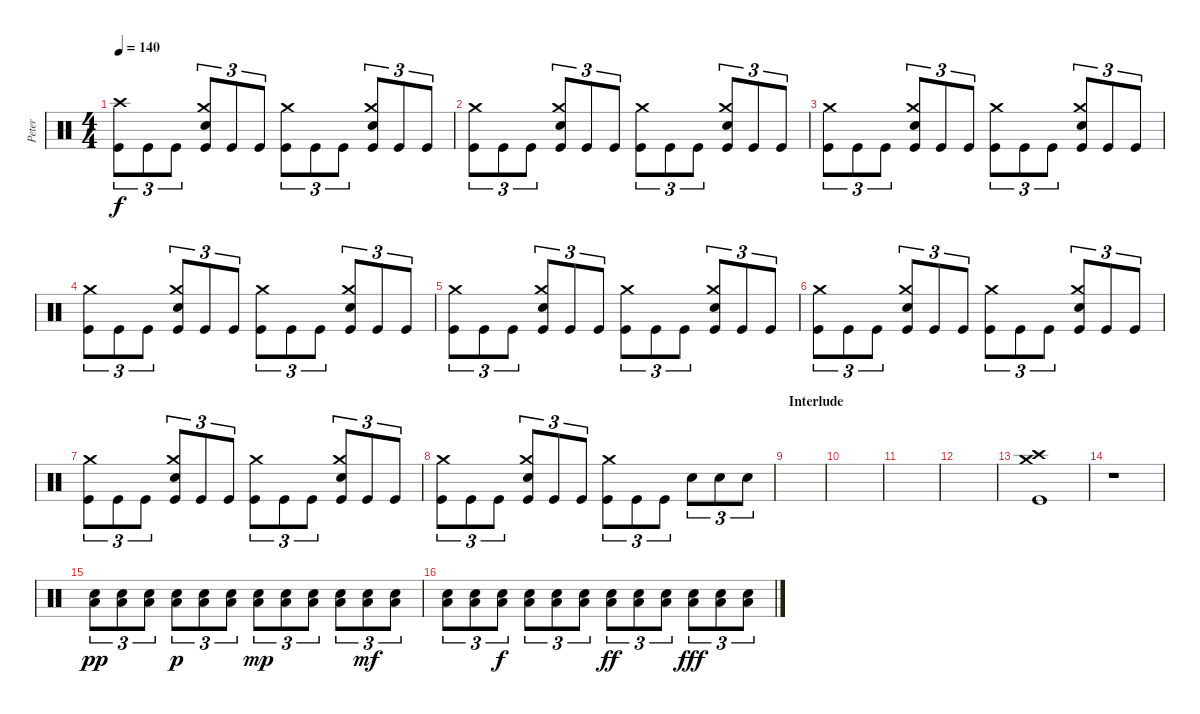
\track ("Peter" "Peter") {instrument percussion}
\staff {score}
\articulation defaults
\ts (4 4)
\tempo 140
\clef neutral
\ks c
("Crash high (hit)" "Kick (hit)").8{tu (3 2) dy f} "Kick (hit)".8{tu (3 2)} "Kick (hit)".8{tu (3 2)} ("Crash medium (hit)" "Electric Snare (hit)" "Kick (hit)").8{tu (3 2)} "Kick (hit)".8{tu (3 2)} "Kick (hit)".8{tu (3 2)} ("Crash medium (hit)" "Kick (hit)").8{tu (3 2)} "Kick (hit)".8{tu (3 2)} "Kick (hit)".8{tu (3 2)} ("Crash medium (hit)" "Electric Snare (hit)" "Kick (hit)").8{tu (3 2)} "Kick (hit)".8{tu (3 2)} "Kick (hit)".8{tu (3 2)} |
("Crash medium (hit)" "Kick (hit)").8{tu (3 2)} "Kick (hit)".8{tu (3 2)} "Kick (hit)".8{tu (3 2)} ("Crash medium (hit)" "Electric Snare (hit)" "Kick (hit)").8{tu (3 2)} "Kick (hit)".8{tu (3 2)} "Kick (hit)".8{tu (3 2)} ("Crash medium (hit)" "Kick (hit)").8{tu (3 2)} "Kick (hit)".8{tu (3 2)} "Kick (hit)".8{tu (3 2)} ("Crash medium (hit)" "Electric Snare (hit)" "Kick (hit)").8{tu (3 2)} "Kick (hit)".8{tu (3 2)} "Kick (hit)".8{tu (3 2)} |
("Crash medium (hit)" "Kick (hit)").8{tu (3 2)} "Kick (hit)".8{tu (3 2)} "Kick (hit)".8{tu (3 2)} ("Crash medium (hit)" "Electric Snare (hit)" "Kick (hit)").8{tu (3 2)} "Kick (hit)".8{tu (3 2)} "Kick (hit)".8{tu (3 2)} ("Crash medium (hit)" "Kick (hit)").8{tu (3 2)} "Kick (hit)".8{tu (3 2)} "Kick (hit)".8{tu (3 2)} ("Crash medium (hit)" "Electric Snare (hit)" "Kick (hit)").8{tu (3 2)} "Kick (hit)".8{tu (3 2)} "Kick (hit)".8{tu (3 2)} |
("Crash medium (hit)" "Kick (hit)").8{tu (3 2)} "Kick (hit)".8{tu (3 2)} "Kick (hit)".8{tu (3 2)} ("Crash medium (hit)" "Electric Snare (hit)" "Kick (hit)").8{tu (3 2)} "Kick (hit)".8{tu (3 2)} "Kick (hit)".8{tu (3 2)} ("Crash medium (hit)" "Kick (hit)").8{tu (3 2)} "Kick (hit)".8{tu (3 2)} "Kick (hit)".8{tu (3 2)} ("Crash medium (hit)" "Electric Snare (hit)" "Kick (hit)").8{tu (3 2)} "Kick (hit)".8{tu (3 2)} "Kick (hit)".8{tu (3 2)} |
("Crash medium (hit)" "Kick (hit)").8{tu (3 2)} "Kick (hit)".8{tu (3 2)} "Kick (hit)".8{tu (3 2)} ("Crash medium (hit)" "Electric Snare (hit)" "Kick (hit)").8{tu (3 2)} "Kick (hit)".8{tu (3 2)} "Kick (hit)".8{tu (3 2)} ("Crash medium (hit)" "Kick (hit)").8{tu (3 2)} "Kick (hit)".8{tu (3 2)} "Kick (hit)".8{tu (3 2)} ("Crash medium (hit)" "Electric Snare (hit)" "Kick (hit)").8{tu (3 2)} "Kick (hit)".8{tu (3 2)} "Kick (hit)".8{tu (3 2)} |
("Crash medium (hit)" "Kick (hit)").8{tu (3 2)} "Kick (hit)".8{tu (3 2)} "Kick (hit)".8{tu (3 2)} ("Crash medium (hit)" "Electric Snare (hit)" "Kick (hit)").8{tu (3 2)} "Kick (hit)".8{tu (3 2)} "Kick (hit)".8{tu (3 2)} ("Crash medium (hit)" "Kick (hit)").8{tu (3 2)} "Kick (hit)".8{tu (3 2)} "Kick (hit)".8{tu (3 2)} ("Crash medium (hit)" "Electric Snare (hit)" "Kick (hit)").8{tu (3 2)} "Kick (hit)".8{tu (3 2)} "Kick (hit)".8{tu (3 2)} |
("Crash medium (hit)" "Kick (hit)").8{tu (3 2)} "Kick (hit)".8{tu (3 2)} "Kick (hit)".8{tu (3 2)} ("Crash medium (hit)" "Electric Snare (hit)" "Kick (hit)").8{tu (3 2)} "Kick (hit)".8{tu (3 2)} "Kick (hit)".8{tu (3 2)} ("Crash medium (hit)" "Kick (hit)").8{tu (3 2)} "Kick (hit)".8{tu (3 2)} "Kick (hit)".8{tu (3 2)} ("Crash medium (hit)" "Electric Snare (hit)" "Kick (hit)").8{tu (3 2)} "Kick (hit)".8{tu (3 2)} "Kick (hit)".8{tu (3 2)} |
("Crash medium (hit)" "Kick (hit)").8{tu (3 2)} "Kick (hit)".8{tu (3 2)} "Kick (hit)".8{tu (3 2)} ("Crash medium (hit)" "Electric Snare (hit)" "Kick (hit)").8{tu (3 2)} "Kick (hit)".8{tu (3 2)} "Kick (hit)".8{tu (3 2)} ("Crash medium (hit)" "Kick (hit)").8{tu (3 2)} "Kick (hit)".8{tu (3 2)} "Kick (hit)".8{tu (3 2)} "Electric Snare (hit)".8{tu (3 2)} "Electric Snare (hit)".8{tu (3 2)} "Electric Snare (hit)".8{tu (3 2)} |
\section ("" "Interlude")
|
|
|
|
("Crash medium (hit)" "Crash high (hit)" "Kick (hit)").1 |
r.1 |
("Low Floor Tom (hit)" "Electric Snare (hit)").8{tu (3 2) dy pp} ("Low Floor Tom (hit)" "Electric Snare (hit)").8{tu (3 2)} ("Low Floor Tom (hit)" "Electric Snare (hit)").8{tu (3 2)} ("Low Floor Tom (hit)" "Electric Snare (hit)").8{tu (3 2) dy p} ("Low Floor Tom (hit)" "Electric Snare (hit)").8{tu (3 2)} ("Low Floor Tom (hit)" "Electric Snare (hit)").8{tu (3 2)} ("Low Floor Tom (hit)" "Electric Snare (hit)").8{tu (3 2) dy mp} ("Low Floor Tom (hit)" "Electric Snare (hit)").8{tu (3 2)} ("Low Floor Tom (hit)" "Electric Snare (hit)").8{tu (3 2)} ("Low Floor Tom (hit)" "Electric Snare (hit)").8{tu (3 2)} ("Low Floor Tom (hit)" "Electric Snare (hit)").8{tu (3 2) dy mf} ("Low Floor Tom (hit)" "Electric Snare (hit)").8{tu (3 2)} |
("Low Floor Tom (hit)" "Electric Snare (hit)").8{tu (3 2)} ("Low Floor Tom (hit)" "Electric Snare (hit)").8{tu (3 2)} ("Low Floor Tom (hit)" "Electric Snare (hit)").8{tu (3 2) dy f} ("Low Floor Tom (hit)" "Electric Snare (hit)").8{tu (3 2)} ("Low Floor Tom (hit)" "Electric Snare (hit)").8{tu (3 2)} ("Low Floor Tom (hit)" "Electric Snare (hit)").8{tu (3 2)} ("Low Floor Tom (hit)" "Electric Snare (hit)").8{tu (3 2) dy ff} ("Low Floor Tom (hit)" "Electric Snare (hit)").8{tu (3 2)} ("Low Floor Tom (hit)" "Electric Snare (hit)").8{tu (3 2)} ("Low Floor Tom (hit)" "Electric Snare (hit)").8{tu (3 2) dy fff} ("Low Floor Tom (hit)" "Electric Snare (hit)").8{tu (3 2)} ("Low Floor Tom (hit)" "Electric Snare (hit)").8{tu (3 2)}
